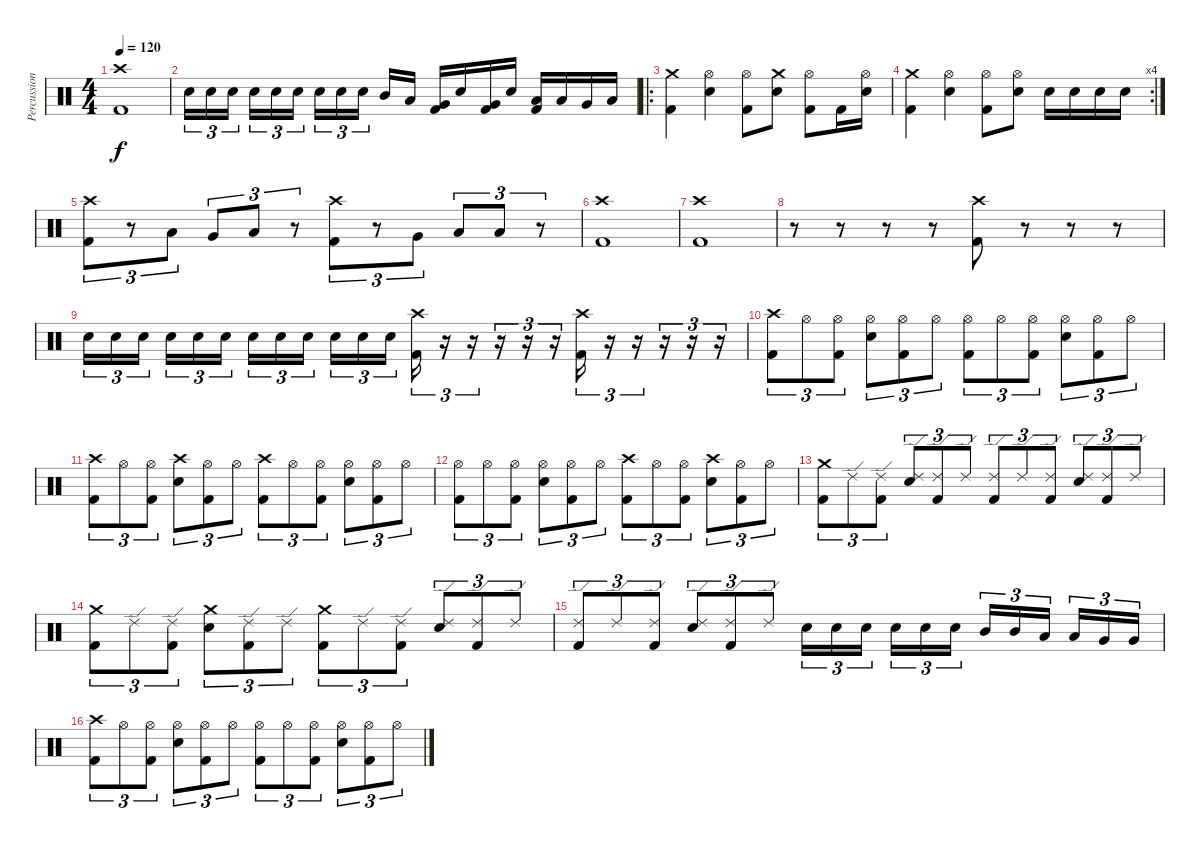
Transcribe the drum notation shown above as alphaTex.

\track ("Percussion" "Percussion") {instrument percussion}
\staff {score}
\articulation defaults
\ts (4 4)
\tempo 120
\clef neutral
\ks c
("Crash high (hit)" "Kick (hit) 2").1{dy f} |
"Snare (hit) 2".16{tu (3 2)} "Snare (hit) 2".16{tu (3 2)} "Snare (hit) 2".16{tu (3 2)} "Snare (hit) 2".16{tu (3 2)} "Snare (hit) 2".16{tu (3 2)} "Snare (hit) 2".16{tu (3 2)} "Snare (hit) 2".16{tu (3 2)} "Snare (hit) 2".16{tu (3 2)} "Snare (hit) 2".16{tu (3 2)} "Mid Tom (hit)".16 "Low Tom (hit)".16 ("Very Low Tom (hit)" "Kick (hit) 2").16 "Snare (hit) 2".16 ("Very Low Tom (hit)" "Kick (hit) 2").16 "Snare (hit) 2".16 ("Low Floor Tom (hit)" "Kick (hit) 2").16 "Low Tom (hit)".16 "Very Low Tom (hit)".16 "Low Floor Tom (hit)".16 |
\ro
("Crash medium (hit)" "Kick (hit) 2").4 ("Hi-Hat (open)" "Snare (hit) 2").4 ("Hi-Hat (open)" "Kick (hit) 2").8 ("Crash medium (hit)" "Snare (hit) 2").8 ("Hi-Hat (open)" "Kick (hit) 2").8 "Kick (hit) 2".16 ("Hi-Hat (open)" "Snare (hit) 2").16 |
\rc 4
("Crash medium (hit)" "Kick (hit) 2").4 ("Hi-Hat (open)" "Snare (hit) 2").4 ("Hi-Hat (open)" "Kick (hit) 2").8 ("Hi-Hat (open)" "Snare (hit) 2").8 "Snare (hit) 2".16 "Snare (hit) 2".16 "Snare (hit) 2".16 "Snare (hit) 2".16 |
("Crash high (hit)" "Kick (hit) 2").8{tu (3 2)} r.8{tu (3 2)} "Low Tom (hit)".8{tu (3 2)} "Very Low Tom (hit)".8{tu (3 2)} "Low Floor Tom (hit)".8{tu (3 2)} r.8{tu (3 2)} ("Crash high (hit)" "Kick (hit) 2").8{tu (3 2)} r.8{tu (3 2)} "Very Low Tom (hit)".8{tu (3 2)} "Low Floor Tom (hit)".8{tu (3 2)} "Low Floor Tom (hit)".8{tu (3 2)} r.8{tu (3 2)} |
("Crash high (hit)" "Kick (hit) 2").1 |
("Crash high (hit)" "Kick (hit) 2").1 |
r.8 r.8 r.8 r.8 ("Crash high (hit)" "Kick (hit) 2").8 r.8 r.8 r.8 |
"Snare (hit) 2".16{tu (3 2)} "Snare (hit) 2".16{tu (3 2)} "Snare (hit) 2".16{tu (3 2)} "Snare (hit) 2".16{tu (3 2)} "Snare (hit) 2".16{tu (3 2)} "Snare (hit) 2".16{tu (3 2)} "Snare (hit) 2".16{tu (3 2)} "Snare (hit) 2".16{tu (3 2)} "Snare (hit) 2".16{tu (3 2)} "Snare (hit) 2".16{tu (3 2)} "Snare (hit) 2".16{tu (3 2)} "Snare (hit) 2".16{tu (3 2)} ("Crash high (hit)" "Kick (hit) 2").16{tu (3 2)} r.16{tu (3 2)} r.16{tu (3 2)} r.16{tu (3 2)} r.16{tu (3 2)} r.16{tu (3 2)} ("Crash high (hit)" "Kick (hit) 2").16{tu (3 2)} r.16{tu (3 2)} r.16{tu (3 2)} r.16{tu (3 2)} r.16{tu (3 2)} r.16{tu (3 2)} |
("Crash high (hit)" "Kick (hit) 2").8{tu (3 2)} "Hi-Hat (open)".8{tu (3 2)} ("Hi-Hat (open)" "Kick (hit) 2").8{tu (3 2)} ("Hi-Hat (open)" "Snare (hit) 2").8{tu (3 2)} ("Hi-Hat (open)" "Kick (hit) 2").8{tu (3 2)} "Hi-Hat (open)".8{tu (3 2)} ("Hi-Hat (open)" "Kick (hit) 2").8{tu (3 2)} "Hi-Hat (open)".8{tu (3 2)} ("Hi-Hat (open)" "Kick (hit) 2").8{tu (3 2)} ("Hi-Hat (open)" "Snare (hit) 2").8{tu (3 2)} ("Hi-Hat (open)" "Kick (hit) 2").8{tu (3 2)} "Hi-Hat (open)".8{tu (3 2)} |
("Crash high (hit)" "Kick (hit) 2").8{tu (3 2)} "Hi-Hat (open)".8{tu (3 2)} ("Hi-Hat (open)" "Kick (hit) 2").8{tu (3 2)} ("Crash high (hit)" "Snare (hit) 2").8{tu (3 2)} ("Hi-Hat (open)" "Kick (hit) 2").8{tu (3 2)} "Hi-Hat (open)".8{tu (3 2)} ("Crash high (hit)" "Kick (hit) 2").8{tu (3 2)} "Hi-Hat (open)".8{tu (3 2)} ("Hi-Hat (open)" "Kick (hit) 2").8{tu (3 2)} ("Hi-Hat (open)" "Snare (hit) 2").8{tu (3 2)} ("Hi-Hat (open)" "Kick (hit) 2").8{tu (3 2)} "Hi-Hat (open)".8{tu (3 2)} |
("Hi-Hat (open)" "Kick (hit) 2").8{tu (3 2)} "Hi-Hat (open)".8{tu (3 2)} ("Hi-Hat (open)" "Kick (hit) 2").8{tu (3 2)} ("Hi-Hat (open)" "Snare (hit) 2").8{tu (3 2)} ("Hi-Hat (open)" "Kick (hit) 2").8{tu (3 2)} "Hi-Hat (open)".8{tu (3 2)} ("Crash high (hit)" "Kick (hit) 2").8{tu (3 2)} "Hi-Hat (open)".8{tu (3 2)} ("Hi-Hat (open)" "Kick (hit) 2").8{tu (3 2)} ("Crash high (hit)" "Snare (hit) 2").8{tu (3 2)} ("Hi-Hat (open)" "Kick (hit) 2").8{tu (3 2)} "Hi-Hat (open)".8{tu (3 2)} |
("Crash medium (hit)" "Kick (hit) 2").8{tu (3 2)} "Ride (edge) 2".8{tu (3 2)} ("Ride (edge) 2" "Kick (hit) 2").8{tu (3 2)} ("Ride (edge) 2" "Snare (hit) 2").8{tu (3 2)} ("Ride (edge) 2" "Kick (hit) 2").8{tu (3 2)} "Ride (edge) 2".8{tu (3 2)} ("Ride (edge) 2" "Kick (hit) 2").8{tu (3 2)} "Ride (edge) 2".8{tu (3 2)} ("Ride (edge) 2" "Kick (hit) 2").8{tu (3 2)} ("Ride (edge) 2" "Snare (hit) 2").8{tu (3 2)} ("Ride (edge) 2" "Kick (hit) 2").8{tu (3 2)} "Ride (edge) 2".8{tu (3 2)} |
("Crash medium (hit)" "Kick (hit) 2").8{tu (3 2)} "Ride (edge) 2".8{tu (3 2)} ("Ride (edge) 2" "Kick (hit) 2").8{tu (3 2)} ("Crash medium (hit)" "Snare (hit) 2").8{tu (3 2)} ("Ride (edge) 2" "Kick (hit) 2").8{tu (3 2)} "Ride (edge) 2".8{tu (3 2)} ("Crash medium (hit)" "Kick (hit) 2").8{tu (3 2)} "Ride (edge) 2".8{tu (3 2)} ("Ride (edge) 2" "Kick (hit) 2").8{tu (3 2)} ("Ride (edge) 2" "Snare (hit) 2").8{tu (3 2)} ("Ride (edge) 2" "Kick (hit) 2").8{tu (3 2)} "Ride (edge) 2".8{tu (3 2)} |
("Ride (edge) 2" "Kick (hit) 2").8{tu (3 2)} "Ride (edge) 2".8{tu (3 2)} ("Ride (edge) 2" "Kick (hit) 2").8{tu (3 2)} ("Ride (edge) 2" "Snare (hit) 2").8{tu (3 2)} ("Ride (edge) 2" "Kick (hit) 2").8{tu (3 2)} "Ride (edge) 2".8{tu (3 2)} "Snare (hit) 2".16{tu (3 2)} "Snare (hit) 2".16{tu (3 2)} "Snare (hit) 2".16{tu (3 2)} "Snare (hit) 2".16{tu (3 2)} "Snare (hit) 2".16{tu (3 2)} "Snare (hit) 2".16{tu (3 2)} "Mid Tom (hit)".16{tu (3 2)} "Mid Tom (hit)".16{tu (3 2)} "Low Tom (hit)".16{tu (3 2)} "Low Tom (hit)".16{tu (3 2)} "Very Low Tom (hit)".16{tu (3 2)} "Very Low Tom (hit)".16{tu (3 2)} |
("Crash high (hit)" "Kick (hit) 2").8{tu (3 2)} "Hi-Hat (open)".8{tu (3 2)} ("Hi-Hat (open)" "Kick (hit) 2").8{tu (3 2)} ("Hi-Hat (open)" "Snare (hit) 2").8{tu (3 2)} ("Hi-Hat (open)" "Kick (hit) 2").8{tu (3 2)} "Hi-Hat (open)".8{tu (3 2)} ("Hi-Hat (open)" "Kick (hit) 2").8{tu (3 2)} "Hi-Hat (open)".8{tu (3 2)} ("Hi-Hat (open)" "Kick (hit) 2").8{tu (3 2)} ("Hi-Hat (open)" "Snare (hit) 2").8{tu (3 2)} ("Hi-Hat (open)" "Kick (hit) 2").8{tu (3 2)} "Hi-Hat (open)".8{tu (3 2)}
